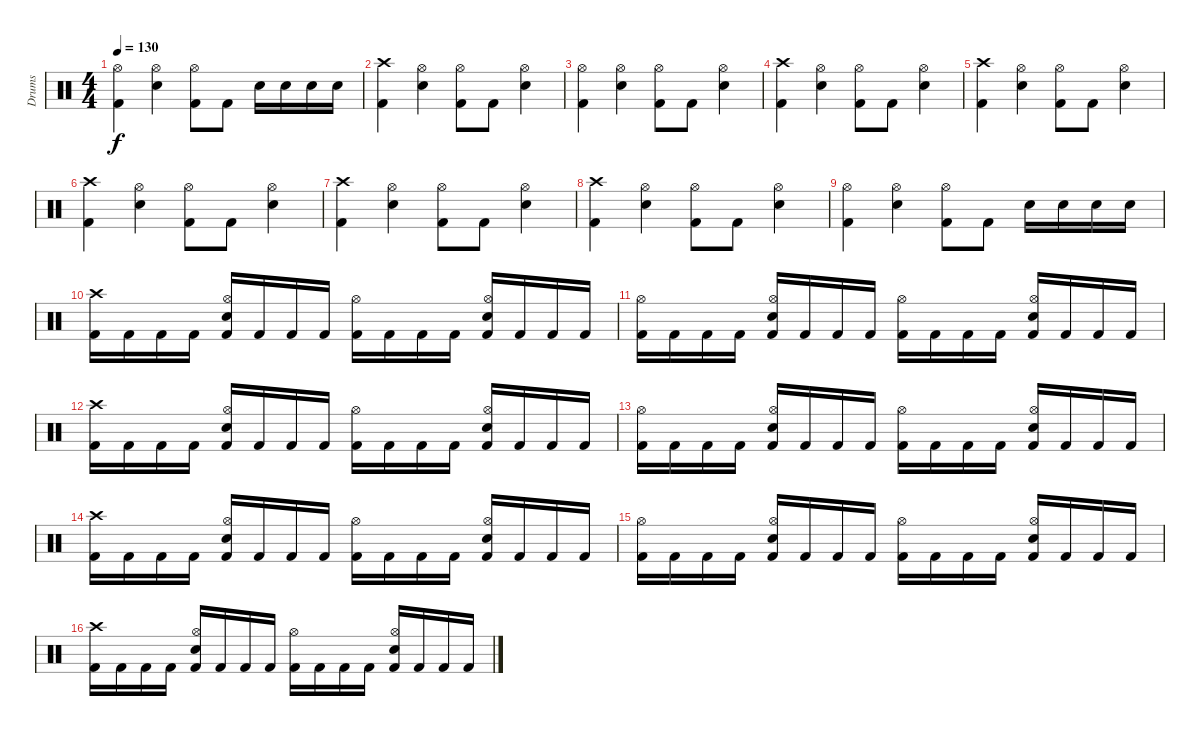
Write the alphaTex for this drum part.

\track ("Drums" "Drums") {instrument percussion}
\staff {score}
\articulation defaults
\ts (4 4)
\tempo 130
\clef neutral
\ks c
("Kick (hit) 2" "Hi-Hat (open)").4{dy f} ("Snare (hit) 2" "Hi-Hat (open)").4 ("Kick (hit) 2" "Hi-Hat (open)").8 "Kick (hit) 2".8 "Snare (hit) 2".16 "Snare (hit) 2".16 "Snare (hit) 2".16 "Snare (hit) 2".16 |
("Kick (hit) 2" "Crash high (hit)").4 ("Snare (hit) 2" "Hi-Hat (open)").4 ("Kick (hit) 2" "Hi-Hat (open)").8 "Kick (hit) 2".8 ("Snare (hit) 2" "Hi-Hat (open)").4 |
("Kick (hit) 2" "Hi-Hat (open)").4 ("Snare (hit) 2" "Hi-Hat (open)").4 ("Kick (hit) 2" "Hi-Hat (open)").8 "Kick (hit) 2".8 ("Snare (hit) 2" "Hi-Hat (open)").4 |
("Kick (hit) 2" "Crash high (hit)").4 ("Snare (hit) 2" "Hi-Hat (open)").4 ("Kick (hit) 2" "Hi-Hat (open)").8 "Kick (hit) 2".8 ("Snare (hit) 2" "Hi-Hat (open)").4 |
("Kick (hit) 2" "Crash high (hit)").4 ("Snare (hit) 2" "Hi-Hat (open)").4 ("Kick (hit) 2" "Hi-Hat (open)").8 "Kick (hit) 2".8 ("Snare (hit) 2" "Hi-Hat (open)").4 |
("Kick (hit) 2" "Crash high (hit)").4 ("Snare (hit) 2" "Hi-Hat (open)").4 ("Kick (hit) 2" "Hi-Hat (open)").8 "Kick (hit) 2".8 ("Snare (hit) 2" "Hi-Hat (open)").4 |
("Kick (hit) 2" "Crash high (hit)").4 ("Snare (hit) 2" "Hi-Hat (open)").4 ("Kick (hit) 2" "Hi-Hat (open)").8 "Kick (hit) 2".8 ("Snare (hit) 2" "Hi-Hat (open)").4 |
("Kick (hit) 2" "Crash high (hit)").4 ("Snare (hit) 2" "Hi-Hat (open)").4 ("Kick (hit) 2" "Hi-Hat (open)").8 "Kick (hit) 2".8 ("Snare (hit) 2" "Hi-Hat (open)").4 |
("Kick (hit) 2" "Hi-Hat (open)").4 ("Snare (hit) 2" "Hi-Hat (open)").4 ("Kick (hit) 2" "Hi-Hat (open)").8 "Kick (hit) 2".8 "Snare (hit) 2".16 "Snare (hit) 2".16 "Snare (hit) 2".16 "Snare (hit) 2".16 |
("Kick (hit) 2" "Crash high (hit)").16 "Kick (hit) 2".16 "Kick (hit) 2".16 "Kick (hit) 2".16 ("Kick (hit) 2" "Hi-Hat (open)" "Snare (hit) 2").16 "Kick (hit) 2".16 "Kick (hit) 2".16 "Kick (hit) 2".16 ("Kick (hit) 2" "Hi-Hat (open)").16 "Kick (hit) 2".16 "Kick (hit) 2".16 "Kick (hit) 2".16 ("Kick (hit) 2" "Hi-Hat (open)" "Snare (hit) 2").16 "Kick (hit) 2".16 "Kick (hit) 2".16 "Kick (hit) 2".16 |
("Kick (hit) 2" "Hi-Hat (open)").16 "Kick (hit) 2".16 "Kick (hit) 2".16 "Kick (hit) 2".16 ("Kick (hit) 2" "Hi-Hat (open)" "Snare (hit) 2").16 "Kick (hit) 2".16 "Kick (hit) 2".16 "Kick (hit) 2".16 ("Kick (hit) 2" "Hi-Hat (open)").16 "Kick (hit) 2".16 "Kick (hit) 2".16 "Kick (hit) 2".16 ("Kick (hit) 2" "Hi-Hat (open)" "Snare (hit) 2").16 "Kick (hit) 2".16 "Kick (hit) 2".16 "Kick (hit) 2".16 |
("Kick (hit) 2" "Crash high (hit)").16 "Kick (hit) 2".16 "Kick (hit) 2".16 "Kick (hit) 2".16 ("Kick (hit) 2" "Hi-Hat (open)" "Snare (hit) 2").16 "Kick (hit) 2".16 "Kick (hit) 2".16 "Kick (hit) 2".16 ("Kick (hit) 2" "Hi-Hat (open)").16 "Kick (hit) 2".16 "Kick (hit) 2".16 "Kick (hit) 2".16 ("Kick (hit) 2" "Hi-Hat (open)" "Snare (hit) 2").16 "Kick (hit) 2".16 "Kick (hit) 2".16 "Kick (hit) 2".16 |
("Kick (hit) 2" "Hi-Hat (open)").16 "Kick (hit) 2".16 "Kick (hit) 2".16 "Kick (hit) 2".16 ("Kick (hit) 2" "Hi-Hat (open)" "Snare (hit) 2").16 "Kick (hit) 2".16 "Kick (hit) 2".16 "Kick (hit) 2".16 ("Kick (hit) 2" "Hi-Hat (open)").16 "Kick (hit) 2".16 "Kick (hit) 2".16 "Kick (hit) 2".16 ("Kick (hit) 2" "Hi-Hat (open)" "Snare (hit) 2").16 "Kick (hit) 2".16 "Kick (hit) 2".16 "Kick (hit) 2".16 |
("Kick (hit) 2" "Crash high (hit)").16 "Kick (hit) 2".16 "Kick (hit) 2".16 "Kick (hit) 2".16 ("Kick (hit) 2" "Hi-Hat (open)" "Snare (hit) 2").16 "Kick (hit) 2".16 "Kick (hit) 2".16 "Kick (hit) 2".16 ("Kick (hit) 2" "Hi-Hat (open)").16 "Kick (hit) 2".16 "Kick (hit) 2".16 "Kick (hit) 2".16 ("Kick (hit) 2" "Hi-Hat (open)" "Snare (hit) 2").16 "Kick (hit) 2".16 "Kick (hit) 2".16 "Kick (hit) 2".16 |
("Kick (hit) 2" "Hi-Hat (open)").16 "Kick (hit) 2".16 "Kick (hit) 2".16 "Kick (hit) 2".16 ("Kick (hit) 2" "Hi-Hat (open)" "Snare (hit) 2").16 "Kick (hit) 2".16 "Kick (hit) 2".16 "Kick (hit) 2".16 ("Kick (hit) 2" "Hi-Hat (open)").16 "Kick (hit) 2".16 "Kick (hit) 2".16 "Kick (hit) 2".16 ("Kick (hit) 2" "Hi-Hat (open)" "Snare (hit) 2").16 "Kick (hit) 2".16 "Kick (hit) 2".16 "Kick (hit) 2".16 |
("Kick (hit) 2" "Crash high (hit)").16 "Kick (hit) 2".16 "Kick (hit) 2".16 "Kick (hit) 2".16 ("Kick (hit) 2" "Hi-Hat (open)" "Snare (hit) 2").16 "Kick (hit) 2".16 "Kick (hit) 2".16 "Kick (hit) 2".16 ("Kick (hit) 2" "Hi-Hat (open)").16 "Kick (hit) 2".16 "Kick (hit) 2".16 "Kick (hit) 2".16 ("Kick (hit) 2" "Hi-Hat (open)" "Snare (hit) 2").16 "Kick (hit) 2".16 "Kick (hit) 2".16 "Kick (hit) 2".16
